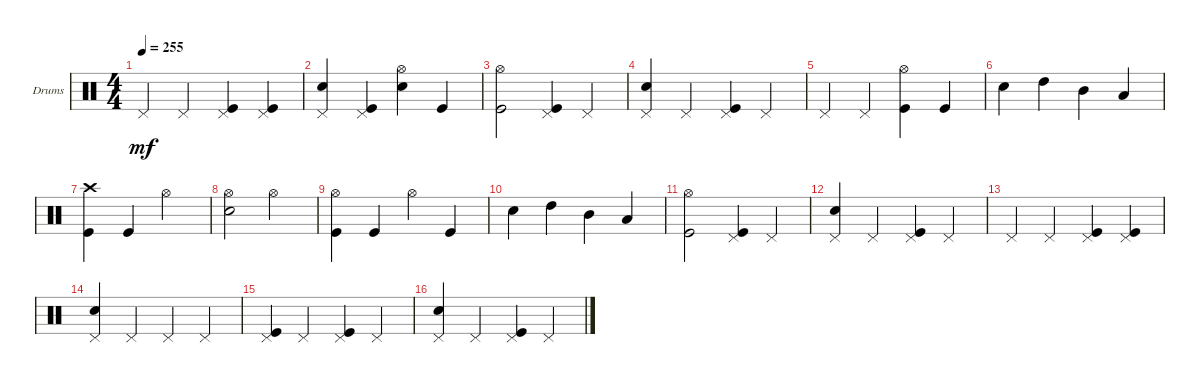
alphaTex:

\bracketExtendMode groupsimilarinstruments
\firstSystemTrackNameOrientation horizontal
\otherSystemsTrackNameOrientation horizontal
\track ("Drums" "Drums") {instrument percussion}
\staff {score}
\articulation defaults
\ts (4 4)
\tempo 255
\clef neutral
\ks c "Pedal Hi-Hat (hit)".4{dy mf} "Pedal Hi-Hat (hit)".4
("Kick (hit)" "Pedal Hi-Hat (hit)").4 ("Kick (hit)" "Pedal Hi-Hat (hit)").4 |
("Snare (hit) 2" "Pedal Hi-Hat (hit)").4 ("Kick (hit)" "Pedal Hi-Hat (hit)").4 ("Snare (hit) 2" "Hi-Hat (open)").4 "Kick (hit)".4 |
("Kick (hit)" "Hi-Hat (open)").2 ("Kick (hit)" "Pedal Hi-Hat (hit)").4 "Pedal Hi-Hat (hit)".4 |
("Snare (hit) 2" "Pedal Hi-Hat (hit)").4 "Pedal Hi-Hat (hit)".4 ("Kick (hit)" "Pedal Hi-Hat (hit)").4 "Pedal Hi-Hat (hit)".4 |
"Pedal Hi-Hat (hit)".4 "Pedal Hi-Hat (hit)".4 ("Kick (hit)" "Hi-Hat (open)").4 "Kick (hit)".4 |
"Snare (hit) 2".4 "High Tom (hit)".4 "Mid Tom (hit)".4 "Low Tom (hit)".4 |
("Kick (hit)" "Crash high (hit)").4 "Kick (hit)".4 "Hi-Hat (open)".2 |
("Snare (hit) 2" "Hi-Hat (open)").2 "Hi-Hat (open)".2 |
("Kick (hit)" "Hi-Hat (open)").4 "Kick (hit)".4 "Hi-Hat (open)".4 "Kick (hit)".4 |
"Snare (hit) 2".4 "High Tom (hit)".4 "Mid Tom (hit)".4 "Low Tom (hit)".4 |
("Kick (hit)" "Hi-Hat (open)").2 ("Kick (hit)" "Pedal Hi-Hat (hit)").4 "Pedal Hi-Hat (hit)".4 |
("Snare (hit) 2" "Pedal Hi-Hat (hit)").4 "Pedal Hi-Hat (hit)".4 ("Kick (hit)" "Pedal Hi-Hat (hit)").4 "Pedal Hi-Hat (hit)".4 |
"Pedal Hi-Hat (hit)".4 "Pedal Hi-Hat (hit)".4 ("Kick (hit)" "Pedal Hi-Hat (hit)").4 ("Kick (hit)" "Pedal Hi-Hat (hit)").4 |
("Snare (hit) 2" "Pedal Hi-Hat (hit)").4 "Pedal Hi-Hat (hit)".4 "Pedal Hi-Hat (hit)".4 "Pedal Hi-Hat (hit)".4 |
("Kick (hit)" "Pedal Hi-Hat (hit)").4 "Pedal Hi-Hat (hit)".4 ("Kick (hit)" "Pedal Hi-Hat (hit)").4 "Pedal Hi-Hat (hit)".4 |
("Snare (hit) 2" "Pedal Hi-Hat (hit)").4 "Pedal Hi-Hat (hit)".4 ("Kick (hit)" "Pedal Hi-Hat (hit)").4 "Pedal Hi-Hat (hit)".4
